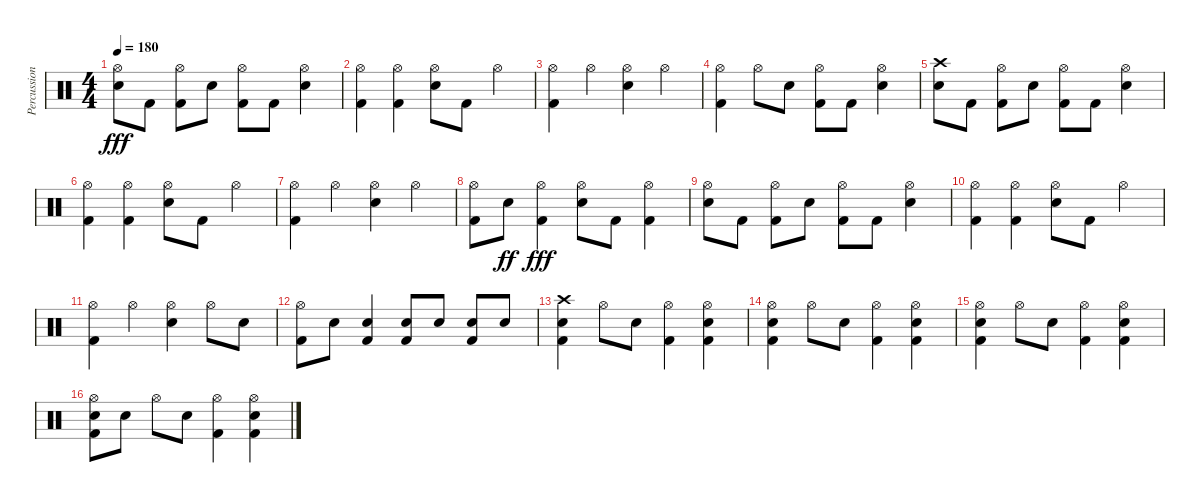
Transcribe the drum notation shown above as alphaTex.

\track ("Percussion" "Percussion") {instrument percussion}
\staff {score}
\articulation defaults
\ts (4 4)
\tempo 180
\clef neutral
\ks c
("Hi-Hat (open)" "Electric Snare (hit)").8{dy fff} "Kick (hit) 2".8 ("Hi-Hat (open)" "Kick (hit) 2").8 "Electric Snare (hit)".8 ("Hi-Hat (open)" "Kick (hit) 2").8 "Kick (hit) 2".8 ("Hi-Hat (open)" "Electric Snare (hit)").4 |
("Hi-Hat (open)" "Kick (hit) 2").4 ("Hi-Hat (open)" "Kick (hit) 2").4 ("Hi-Hat (open)" "Electric Snare (hit)").8 "Kick (hit) 2".8 "Hi-Hat (open)".4 |
("Hi-Hat (open)" "Kick (hit) 2").4 "Hi-Hat (open)".4 ("Hi-Hat (open)" "Electric Snare (hit)").4 "Hi-Hat (open)".4 |
("Hi-Hat (open)" "Kick (hit) 2").4 "Hi-Hat (open)".8 "Electric Snare (hit)".8 ("Hi-Hat (open)" "Kick (hit) 2").8 "Kick (hit) 2".8 ("Hi-Hat (open)" "Electric Snare (hit)").4 |
("Crash high (hit)" "Electric Snare (hit)").8 "Kick (hit) 2".8 ("Hi-Hat (open)" "Kick (hit) 2").8 "Electric Snare (hit)".8 ("Hi-Hat (open)" "Kick (hit) 2").8 "Kick (hit) 2".8 ("Hi-Hat (open)" "Electric Snare (hit)").4 |
("Hi-Hat (open)" "Kick (hit) 2").4 ("Hi-Hat (open)" "Kick (hit) 2").4 ("Hi-Hat (open)" "Electric Snare (hit)").8 "Kick (hit) 2".8 "Hi-Hat (open)".4 |
("Hi-Hat (open)" "Kick (hit) 2").4 "Hi-Hat (open)".4 ("Hi-Hat (open)" "Electric Snare (hit)").4 "Hi-Hat (open)".4 |
("Hi-Hat (open)" "Kick (hit) 2").8 "Electric Snare (hit)".8{dy ff} ("Hi-Hat (open)" "Kick (hit) 2").4{dy fff} ("Hi-Hat (open)" "Electric Snare (hit)").8 "Kick (hit) 2".8 ("Hi-Hat (open)" "Kick (hit) 2").4 |
("Hi-Hat (open)" "Electric Snare (hit)").8 "Kick (hit) 2".8 ("Hi-Hat (open)" "Kick (hit) 2").8 "Electric Snare (hit)".8 ("Hi-Hat (open)" "Kick (hit) 2").8 "Kick (hit) 2".8 ("Hi-Hat (open)" "Electric Snare (hit)").4 |
("Hi-Hat (open)" "Kick (hit) 2").4 ("Hi-Hat (open)" "Kick (hit) 2").4 ("Hi-Hat (open)" "Electric Snare (hit)").8 "Kick (hit) 2".8 "Hi-Hat (open)".4 |
("Hi-Hat (open)" "Kick (hit) 2").4 "Hi-Hat (open)".4 ("Hi-Hat (open)" "Electric Snare (hit)").4 "Hi-Hat (open)".8 "Electric Snare (hit)".8 |
("Hi-Hat (open)" "Kick (hit) 2").8 "Electric Snare (hit)".8 ("Kick (hit) 2" "Electric Snare (hit)").4 ("Kick (hit) 2" "Electric Snare (hit)").8 "Electric Snare (hit)".8 ("Kick (hit) 2" "Electric Snare (hit)").8 "Electric Snare (hit)".8 |
("Crash high (hit)" "Kick (hit) 2" "Electric Snare (hit)").4 "Hi-Hat (open)".8 "Electric Snare (hit)".8 ("Hi-Hat (open)" "Kick (hit) 2").4 ("Hi-Hat (open)" "Kick (hit) 2" "Electric Snare (hit)").4 |
("Hi-Hat (open)" "Kick (hit) 2" "Electric Snare (hit)").4 "Hi-Hat (open)".8 "Electric Snare (hit)".8 ("Hi-Hat (open)" "Kick (hit) 2").4 ("Hi-Hat (open)" "Kick (hit) 2" "Electric Snare (hit)").4 |
("Hi-Hat (open)" "Kick (hit) 2" "Electric Snare (hit)").4 "Hi-Hat (open)".8 "Electric Snare (hit)".8 ("Hi-Hat (open)" "Kick (hit) 2").4 ("Hi-Hat (open)" "Kick (hit) 2" "Electric Snare (hit)").4 |
("Hi-Hat (open)" "Kick (hit) 2" "Electric Snare (hit)").8 "Electric Snare (hit)".8 "Hi-Hat (open)".8 "Electric Snare (hit)".8 ("Hi-Hat (open)" "Kick (hit) 2").4 ("Hi-Hat (open)" "Kick (hit) 2" "Electric Snare (hit)").4
